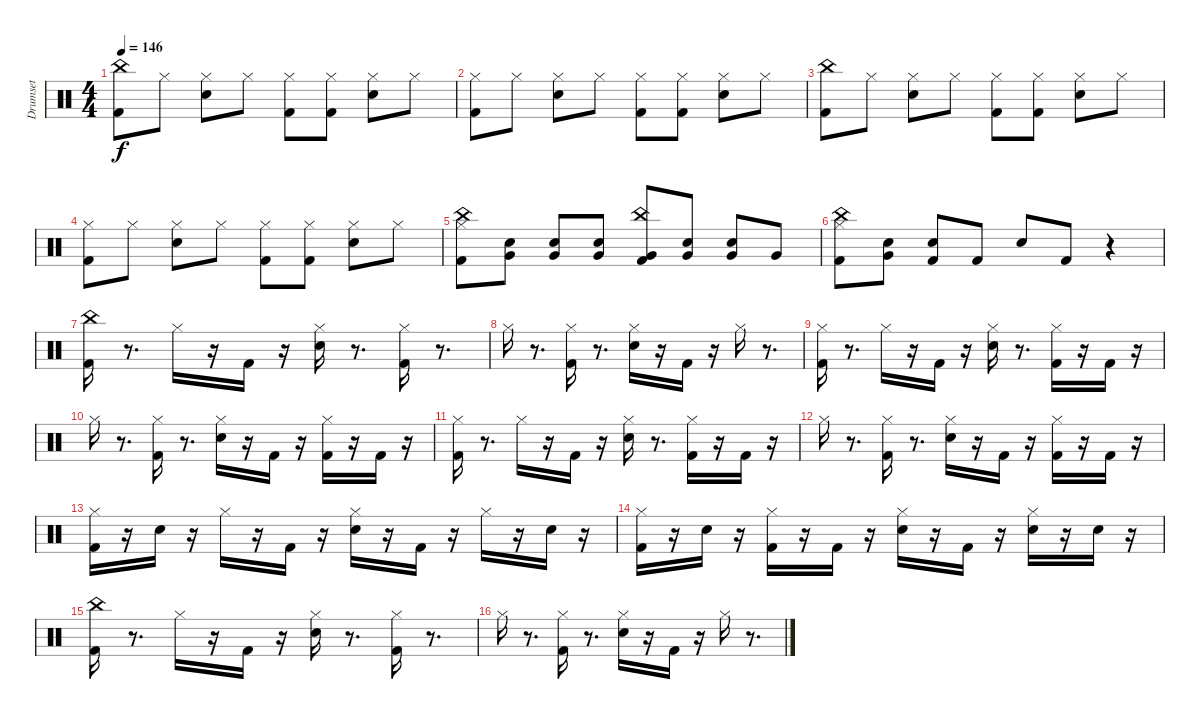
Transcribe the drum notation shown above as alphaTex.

\track ("Drumset" "Drumset") {instrument percussion}
\staff {score}
\articulation defaults
\ts (4 4)
\tempo 146
\clef neutral
\ks c
("Kick (hit) 2" "China (hit)").8{dy f} "Hi-Hat (closed)".8 ("Snare (hit) 2" "Hi-Hat (closed)").8 "Hi-Hat (closed)".8 ("Kick (hit) 2" "Hi-Hat (closed)").8 ("Kick (hit) 2" "Hi-Hat (closed)").8 ("Snare (hit) 2" "Hi-Hat (closed)").8 "Hi-Hat (closed)".8 |
("Kick (hit) 2" "Hi-Hat (closed)").8 "Hi-Hat (closed)".8 ("Snare (hit) 2" "Hi-Hat (closed)").8 "Hi-Hat (closed)".8 ("Kick (hit) 2" "Hi-Hat (closed)").8 ("Kick (hit) 2" "Hi-Hat (closed)").8 ("Snare (hit) 2" "Hi-Hat (closed)").8 "Hi-Hat (closed)".8 |
("Kick (hit) 2" "China (hit)").8 "Hi-Hat (closed)".8 ("Snare (hit) 2" "Hi-Hat (closed)").8 "Hi-Hat (closed)".8 ("Kick (hit) 2" "Hi-Hat (closed)").8 ("Kick (hit) 2" "Hi-Hat (closed)").8 ("Snare (hit) 2" "Hi-Hat (closed)").8 "Hi-Hat (closed)".8 |
("Kick (hit) 2" "Hi-Hat (closed)").8 "Hi-Hat (closed)".8 ("Snare (hit) 2" "Hi-Hat (closed)").8 "Hi-Hat (closed)".8 ("Kick (hit) 2" "Hi-Hat (closed)").8 ("Kick (hit) 2" "Hi-Hat (closed)").8 ("Snare (hit) 2" "Hi-Hat (closed)").8 "Hi-Hat (closed)".8 |
("Kick (hit) 2" "Hi-Hat (closed)" "China (hit)").8 ("Snare (hit) 2" "Very Low Tom (hit)").8 ("Snare (hit) 2" "Very Low Tom (hit)").8 ("Snare (hit) 2" "Very Low Tom (hit)").8 ("Kick (hit) 2" "Very Low Tom (hit)" "China (hit)").8 ("Snare (hit) 2" "Very Low Tom (hit)").8 ("Snare (hit) 2" "Very Low Tom (hit)").8 "Very Low Tom (hit)".8 |
("Kick (hit) 2" "Hi-Hat (closed)" "China (hit)").8 ("Snare (hit) 2" "Very Low Tom (hit)").8 ("Kick (hit) 2" "Electric Snare (hit)").8 "Kick (hit) 2".8 "Electric Snare (hit)".8 "Kick (hit) 2".8 r.4 |
("Kick (hit) 2" "China (hit)").16 r.8{d} "Hi-Hat (closed)".16 r.16 "Kick (hit) 2".16 r.16 ("Electric Snare (hit)" "Hi-Hat (closed)").16 r.8{d} ("Kick (hit) 2" "Hi-Hat (closed)").16 r.8{d} |
"Hi-Hat (closed)".16 r.8{d} ("Kick (hit) 2" "Hi-Hat (closed)").16 r.8{d} ("Electric Snare (hit)" "Hi-Hat (closed)").16 r.16 "Kick (hit) 2".16 r.16 "Hi-Hat (closed)".16 r.8{d} |
("Kick (hit) 2" "Hi-Hat (closed)").16 r.8{d} "Hi-Hat (closed)".16 r.16 "Kick (hit) 2".16 r.16 ("Electric Snare (hit)" "Hi-Hat (closed)").16 r.8{d} ("Kick (hit) 2" "Hi-Hat (closed)").16 r.16 "Kick (hit) 2".16 r.16 |
"Hi-Hat (closed)".16 r.8{d} ("Kick (hit) 2" "Hi-Hat (closed)").16 r.8{d} ("Electric Snare (hit)" "Hi-Hat (closed)").16 r.16 "Kick (hit) 2".16 r.16 ("Kick (hit) 2" "Hi-Hat (closed)").16 r.16 "Kick (hit) 2".16 r.16 |
("Kick (hit) 2" "Hi-Hat (closed)").16 r.8{d} "Hi-Hat (closed)".16 r.16 "Kick (hit) 2".16 r.16 ("Electric Snare (hit)" "Hi-Hat (closed)").16 r.8{d} ("Kick (hit) 2" "Hi-Hat (closed)").16 r.16 "Kick (hit) 2".16 r.16 |
"Hi-Hat (closed)".16 r.8{d} ("Kick (hit) 2" "Hi-Hat (closed)").16 r.8{d} ("Electric Snare (hit)" "Hi-Hat (closed)").16 r.16 "Kick (hit) 2".16 r.16 ("Kick (hit) 2" "Hi-Hat (closed)").16 r.16 "Kick (hit) 2".16 r.16 |
("Kick (hit) 2" "Hi-Hat (closed)").16 r.16 "Electric Snare (hit)".16 r.16 "Hi-Hat (closed)".16 r.16 "Kick (hit) 2".16 r.16 ("Electric Snare (hit)" "Hi-Hat (closed)").16 r.16 "Kick (hit) 2".16 r.16 "Hi-Hat (closed)".16 r.16 "Electric Snare (hit)".16 r.16 |
("Kick (hit) 2" "Hi-Hat (closed)").16 r.16 "Electric Snare (hit)".16 r.16 ("Kick (hit) 2" "Hi-Hat (closed)").16 r.16 "Kick (hit) 2".16 r.16 ("Electric Snare (hit)" "Hi-Hat (closed)").16 r.16 "Kick (hit) 2".16 r.16 ("Electric Snare (hit)" "Hi-Hat (closed)").16 r.16 "Electric Snare (hit)".16 r.16 |
("Kick (hit) 2" "China (hit)").16 r.8{d} "Hi-Hat (closed)".16 r.16 "Kick (hit) 2".16 r.16 ("Electric Snare (hit)" "Hi-Hat (closed)").16 r.8{d} ("Kick (hit) 2" "Hi-Hat (closed)").16 r.8{d} |
"Hi-Hat (closed)".16 r.8{d} ("Kick (hit) 2" "Hi-Hat (closed)").16 r.8{d} ("Electric Snare (hit)" "Hi-Hat (closed)").16 r.16 "Kick (hit) 2".16 r.16 "Hi-Hat (closed)".16 r.8{d}
